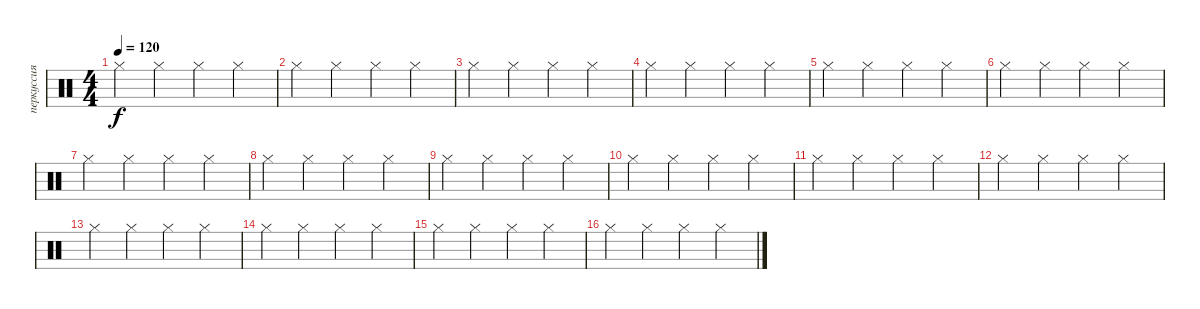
\track ("перкуссия" "перкуссия") {instrument percussion}
\staff {score}
\articulation defaults
\ts (4 4)
\tempo 120
\clef neutral
\ks c "Hi-Hat (closed)".4{dy f} "Hi-Hat (closed)".4 "Hi-Hat (closed)".4 "Hi-Hat (closed)".4
|
"Hi-Hat (closed)".4 "Hi-Hat (closed)".4 "Hi-Hat (closed)".4 "Hi-Hat (closed)".4 |
"Hi-Hat (closed)".4 "Hi-Hat (closed)".4 "Hi-Hat (closed)".4 "Hi-Hat (closed)".4 |
"Hi-Hat (closed)".4 "Hi-Hat (closed)".4 "Hi-Hat (closed)".4 "Hi-Hat (closed)".4 |
"Hi-Hat (closed)".4 "Hi-Hat (closed)".4 "Hi-Hat (closed)".4 "Hi-Hat (closed)".4 |
"Hi-Hat (closed)".4 "Hi-Hat (closed)".4 "Hi-Hat (closed)".4 "Hi-Hat (closed)".4 |
"Hi-Hat (closed)".4 "Hi-Hat (closed)".4 "Hi-Hat (closed)".4 "Hi-Hat (closed)".4 |
"Hi-Hat (closed)".4 "Hi-Hat (closed)".4 "Hi-Hat (closed)".4 "Hi-Hat (closed)".4 |
"Hi-Hat (closed)".4 "Hi-Hat (closed)".4 "Hi-Hat (closed)".4 "Hi-Hat (closed)".4 |
"Hi-Hat (closed)".4 "Hi-Hat (closed)".4 "Hi-Hat (closed)".4 "Hi-Hat (closed)".4 |
"Hi-Hat (closed)".4 "Hi-Hat (closed)".4 "Hi-Hat (closed)".4 "Hi-Hat (closed)".4 |
"Hi-Hat (closed)".4 "Hi-Hat (closed)".4 "Hi-Hat (closed)".4 "Hi-Hat (closed)".4 |
"Hi-Hat (closed)".4 "Hi-Hat (closed)".4 "Hi-Hat (closed)".4 "Hi-Hat (closed)".4 |
"Hi-Hat (closed)".4 "Hi-Hat (closed)".4 "Hi-Hat (closed)".4 "Hi-Hat (closed)".4 |
"Hi-Hat (closed)".4 "Hi-Hat (closed)".4 "Hi-Hat (closed)".4 "Hi-Hat (closed)".4 |
"Hi-Hat (closed)".4 "Hi-Hat (closed)".4 "Hi-Hat (closed)".4 "Hi-Hat (closed)".4
